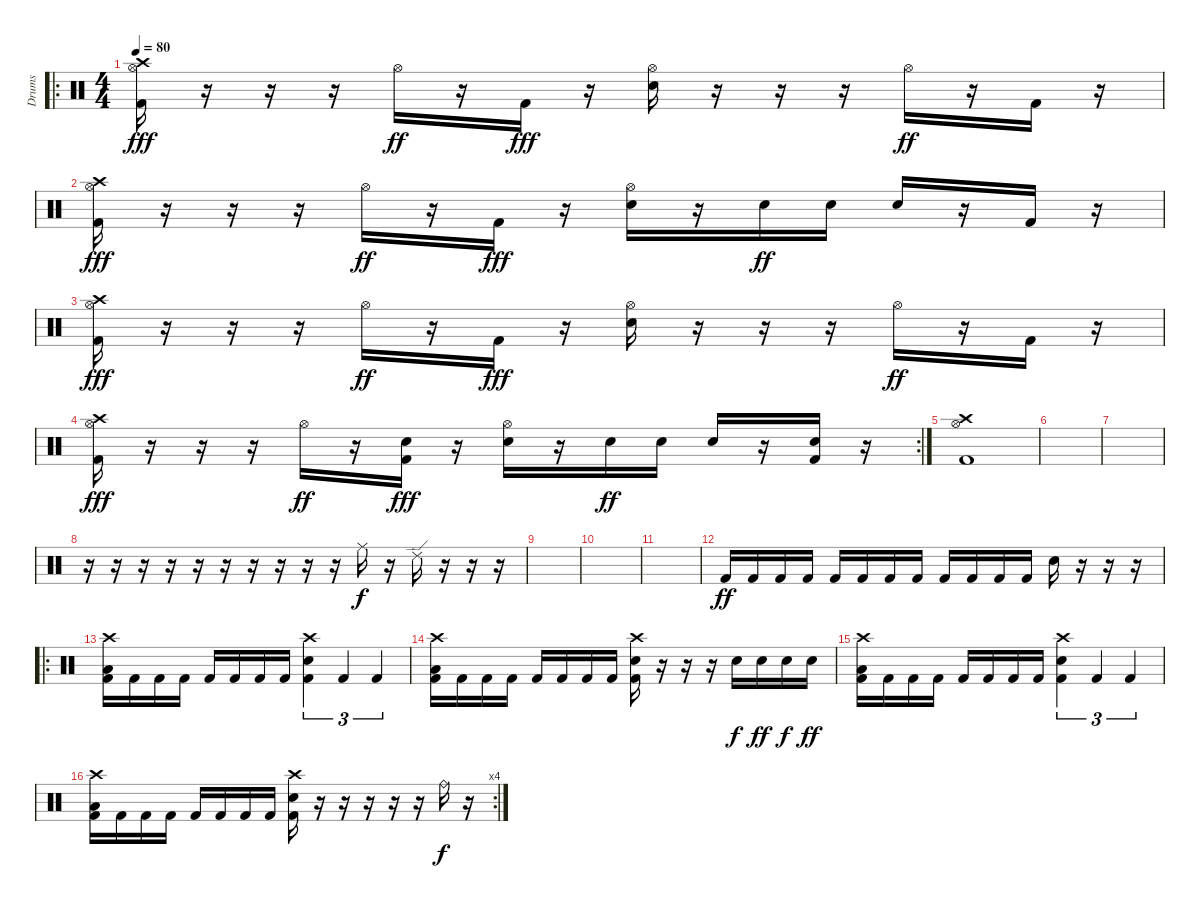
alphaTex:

\track ("Drums" "Drums") {instrument percussion}
\staff {score}
\articulation defaults
\ro
\ts (4 4)
\tempo 80
\tempo 156
\tempo 80
\clef neutral
\ks c
("Crash high (hit)" "Hi-Hat (open)" "Kick (hit) 2").16{dy fff} r.16 r.16 r.16 "Hi-Hat (open)".16{dy ff} r.16 "Kick (hit) 2".16{dy fff} r.16 ("Hi-Hat (open)" "Snare (hit) 2").16 r.16 r.16 r.16 "Hi-Hat (open)".16{dy ff} r.16 "Kick (hit) 2".16 r.16 |
("Crash high (hit)" "Hi-Hat (open)" "Kick (hit) 2").16{dy fff} r.16 r.16 r.16 "Hi-Hat (open)".16{dy ff} r.16 "Kick (hit) 2".16{dy fff} r.16 ("Hi-Hat (open)" "Snare (hit) 2").16 r.16 "Snare (hit) 2".16{dy ff} "Snare (hit) 2".16 "Snare (hit) 2".16 r.16 "Kick (hit) 2".16 r.16 |
("Crash high (hit)" "Hi-Hat (open)" "Kick (hit) 2").16{dy fff} r.16 r.16 r.16 "Hi-Hat (open)".16{dy ff} r.16 "Kick (hit) 2".16{dy fff} r.16 ("Hi-Hat (open)" "Snare (hit) 2").16 r.16 r.16 r.16 "Hi-Hat (open)".16{dy ff} r.16 "Kick (hit) 2".16 r.16 |
\rc 2
("Crash high (hit)" "Hi-Hat (open)" "Kick (hit) 2").16{dy fff} r.16 r.16 r.16 "Hi-Hat (open)".16{dy ff} r.16 ("Snare (hit) 2" "Kick (hit) 2").16{dy fff} r.16 ("Hi-Hat (open)" "Snare (hit) 2").16 r.16 "Snare (hit) 2".16{dy ff} "Snare (hit) 2".16 "Snare (hit) 2".16 r.16 ("Snare (hit) 2" "Kick (hit) 2").16 r.16 |
("Crash high (hit)" "Hi-Hat (open)" "Kick (hit) 2").1 |
|
|
r.16 r.16 r.16 r.16 r.16 r.16 r.16 r.16 r.16 r.16 "Ride (middle)".16{dy f} r.16 "Ride (edge) 2".16 r.16 r.16 r.16 |
|
|
|
"Kick (hit) 2".16{dy ff} "Kick (hit) 2".16 "Kick (hit) 2".16 "Kick (hit) 2".16 "Kick (hit) 2".16 "Kick (hit) 2".16 "Kick (hit) 2".16 "Kick (hit) 2".16 "Kick (hit) 2".16 "Kick (hit) 2".16 "Kick (hit) 2".16 "Kick (hit) 2".16 "Snare (hit) 2".16 r.16 r.16 r.16 |
\ro
("Crash high (hit)" "Low Tom (hit)" "Kick (hit) 2").16 "Kick (hit) 2".16 "Kick (hit) 2".16 "Kick (hit) 2".16 "Kick (hit) 2".16 "Kick (hit) 2".16 "Kick (hit) 2".16 "Kick (hit) 2".16 ("Crash high (hit)" "Snare (hit) 2" "Kick (hit) 2").4{tu (3 2)} "Kick (hit) 2".4{tu (3 2)} "Kick (hit) 2".4{tu (3 2)} |
("Crash high (hit)" "Low Tom (hit)" "Kick (hit) 2").16 "Kick (hit) 2".16 "Kick (hit) 2".16 "Kick (hit) 2".16 "Kick (hit) 2".16 "Kick (hit) 2".16 "Kick (hit) 2".16 "Kick (hit) 2".16 ("Crash high (hit)" "Snare (hit) 2" "Kick (hit) 2").16 r.16 r.16 r.16 "Snare (hit) 2".16{dy f} "Snare (hit) 2".16{dy ff} "Snare (hit) 2".16{dy f} "Snare (hit) 2".16{dy ff} |
("Crash high (hit)" "Low Tom (hit)" "Kick (hit) 2").16 "Kick (hit) 2".16 "Kick (hit) 2".16 "Kick (hit) 2".16 "Kick (hit) 2".16 "Kick (hit) 2".16 "Kick (hit) 2".16 "Kick (hit) 2".16 ("Crash high (hit)" "Snare (hit) 2" "Kick (hit) 2").4{tu (3 2)} "Kick (hit) 2".4{tu (3 2)} "Kick (hit) 2".4{tu (3 2)} |
\rc 4
("Crash high (hit)" "Low Tom (hit)" "Kick (hit) 2").16 "Kick (hit) 2".16 "Kick (hit) 2".16 "Kick (hit) 2".16 "Kick (hit) 2".16 "Kick (hit) 2".16 "Kick (hit) 2".16 "Kick (hit) 2".16 ("Crash high (hit)" "Snare (hit) 2" "Kick (hit) 2").16 r.16 r.16 r.16 r.16 r.16 "Ride (bell)".16{dy f} r.16
